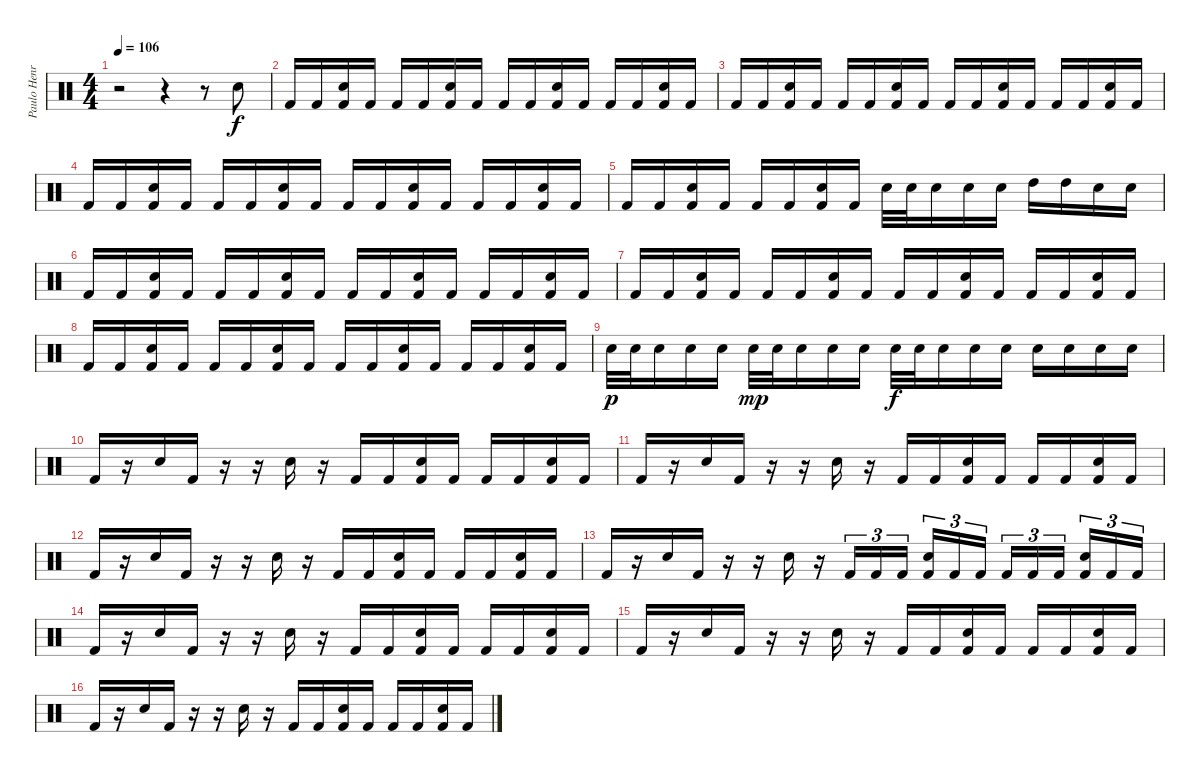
\track ("Paulo Henrique" "Paulo Henr") {instrument percussion}
\staff {score}
\articulation defaults
\ts (4 4)
\tempo 106
\clef neutral
\ks c
r.2{dy f} r.4 r.8 "Electric Snare (hit)".8 |
"Kick (hit) 2".16 "Kick (hit) 2".16 ("Electric Snare (hit)" "Kick (hit) 2").16 "Kick (hit) 2".16 "Kick (hit) 2".16 "Kick (hit) 2".16 ("Electric Snare (hit)" "Kick (hit) 2").16 "Kick (hit) 2".16 "Kick (hit) 2".16 "Kick (hit) 2".16 ("Electric Snare (hit)" "Kick (hit) 2").16 "Kick (hit) 2".16 "Kick (hit) 2".16 "Kick (hit) 2".16 ("Electric Snare (hit)" "Kick (hit) 2").16 "Kick (hit) 2".16 |
"Kick (hit) 2".16 "Kick (hit) 2".16 ("Electric Snare (hit)" "Kick (hit) 2").16 "Kick (hit) 2".16 "Kick (hit) 2".16 "Kick (hit) 2".16 ("Electric Snare (hit)" "Kick (hit) 2").16 "Kick (hit) 2".16 "Kick (hit) 2".16 "Kick (hit) 2".16 ("Electric Snare (hit)" "Kick (hit) 2").16 "Kick (hit) 2".16 "Kick (hit) 2".16 "Kick (hit) 2".16 ("Electric Snare (hit)" "Kick (hit) 2").16 "Kick (hit) 2".16 |
"Kick (hit) 2".16 "Kick (hit) 2".16 ("Electric Snare (hit)" "Kick (hit) 2").16 "Kick (hit) 2".16 "Kick (hit) 2".16 "Kick (hit) 2".16 ("Electric Snare (hit)" "Kick (hit) 2").16 "Kick (hit) 2".16 "Kick (hit) 2".16 "Kick (hit) 2".16 ("Electric Snare (hit)" "Kick (hit) 2").16 "Kick (hit) 2".16 "Kick (hit) 2".16 "Kick (hit) 2".16 ("Electric Snare (hit)" "Kick (hit) 2").16 "Kick (hit) 2".16 |
"Kick (hit) 2".16 "Kick (hit) 2".16 ("Electric Snare (hit)" "Kick (hit) 2").16 "Kick (hit) 2".16 "Kick (hit) 2".16 "Kick (hit) 2".16 ("Electric Snare (hit)" "Kick (hit) 2").16 "Kick (hit) 2".16 "Electric Snare (hit)".32 "Electric Snare (hit)".32 "Electric Snare (hit)".16 "Electric Snare (hit)".16 "Electric Snare (hit)".16 "High Tom (hit)".16 "High Tom (hit)".16 "Electric Snare (hit)".16 "Electric Snare (hit)".16 |
"Kick (hit) 2".16 "Kick (hit) 2".16 ("Electric Snare (hit)" "Kick (hit) 2").16 "Kick (hit) 2".16 "Kick (hit) 2".16 "Kick (hit) 2".16 ("Electric Snare (hit)" "Kick (hit) 2").16 "Kick (hit) 2".16 "Kick (hit) 2".16 "Kick (hit) 2".16 ("Electric Snare (hit)" "Kick (hit) 2").16 "Kick (hit) 2".16 "Kick (hit) 2".16 "Kick (hit) 2".16 ("Electric Snare (hit)" "Kick (hit) 2").16 "Kick (hit) 2".16 |
"Kick (hit) 2".16 "Kick (hit) 2".16 ("Electric Snare (hit)" "Kick (hit) 2").16 "Kick (hit) 2".16 "Kick (hit) 2".16 "Kick (hit) 2".16 ("Electric Snare (hit)" "Kick (hit) 2").16 "Kick (hit) 2".16 "Kick (hit) 2".16 "Kick (hit) 2".16 ("Electric Snare (hit)" "Kick (hit) 2").16 "Kick (hit) 2".16 "Kick (hit) 2".16 "Kick (hit) 2".16 ("Electric Snare (hit)" "Kick (hit) 2").16 "Kick (hit) 2".16 |
"Kick (hit) 2".16 "Kick (hit) 2".16 ("Electric Snare (hit)" "Kick (hit) 2").16 "Kick (hit) 2".16 "Kick (hit) 2".16 "Kick (hit) 2".16 ("Electric Snare (hit)" "Kick (hit) 2").16 "Kick (hit) 2".16 "Kick (hit) 2".16 "Kick (hit) 2".16 ("Electric Snare (hit)" "Kick (hit) 2").16 "Kick (hit) 2".16 "Kick (hit) 2".16 "Kick (hit) 2".16 ("Electric Snare (hit)" "Kick (hit) 2").16 "Kick (hit) 2".16 |
"Electric Snare (hit)".32{dy p} "Electric Snare (hit)".32 "Electric Snare (hit)".16 "Electric Snare (hit)".16 "Electric Snare (hit)".16 "Electric Snare (hit)".32{dy mp} "Electric Snare (hit)".32 "Electric Snare (hit)".16 "Electric Snare (hit)".16 "Electric Snare (hit)".16 "Electric Snare (hit)".32{dy f} "Electric Snare (hit)".32 "Electric Snare (hit)".16 "Electric Snare (hit)".16 "Electric Snare (hit)".16 "Electric Snare (hit)".16 "Electric Snare (hit)".16 "Electric Snare (hit)".16 "Electric Snare (hit)".16 |
"Kick (hit) 2".16 r.16 "Electric Snare (hit)".16 "Kick (hit) 2".16 r.16 r.16 "Electric Snare (hit)".16 r.16 "Kick (hit) 2".16 "Kick (hit) 2".16 ("Electric Snare (hit)" "Kick (hit) 2").16 "Kick (hit) 2".16 "Kick (hit) 2".16 "Kick (hit) 2".16 ("Electric Snare (hit)" "Kick (hit) 2").16 "Kick (hit) 2".16 |
"Kick (hit) 2".16 r.16 "Electric Snare (hit)".16 "Kick (hit) 2".16 r.16 r.16 "Electric Snare (hit)".16 r.16 "Kick (hit) 2".16 "Kick (hit) 2".16 ("Electric Snare (hit)" "Kick (hit) 2").16 "Kick (hit) 2".16 "Kick (hit) 2".16 "Kick (hit) 2".16 ("Electric Snare (hit)" "Kick (hit) 2").16 "Kick (hit) 2".16 |
"Kick (hit) 2".16 r.16 "Electric Snare (hit)".16 "Kick (hit) 2".16 r.16 r.16 "Electric Snare (hit)".16 r.16 "Kick (hit) 2".16 "Kick (hit) 2".16 ("Electric Snare (hit)" "Kick (hit) 2").16 "Kick (hit) 2".16 "Kick (hit) 2".16 "Kick (hit) 2".16 ("Electric Snare (hit)" "Kick (hit) 2").16 "Kick (hit) 2".16 |
"Kick (hit) 2".16 r.16 "Electric Snare (hit)".16 "Kick (hit) 2".16 r.16 r.16 "Electric Snare (hit)".16 r.16 "Kick (hit) 2".16{tu (3 2)} "Kick (hit) 2".16{tu (3 2)} "Kick (hit) 2".16{tu (3 2)} ("Electric Snare (hit)" "Kick (hit) 2").16{tu (3 2)} "Kick (hit) 2".16{tu (3 2)} "Kick (hit) 2".16{tu (3 2)} "Kick (hit) 2".16{tu (3 2)} "Kick (hit) 2".16{tu (3 2)} "Kick (hit) 2".16{tu (3 2)} ("Electric Snare (hit)" "Kick (hit) 2").16{tu (3 2)} "Kick (hit) 2".16{tu (3 2)} "Kick (hit) 2".16{tu (3 2)} |
"Kick (hit) 2".16 r.16 "Electric Snare (hit)".16 "Kick (hit) 2".16 r.16 r.16 "Electric Snare (hit)".16 r.16 "Kick (hit) 2".16 "Kick (hit) 2".16 ("Electric Snare (hit)" "Kick (hit) 2").16 "Kick (hit) 2".16 "Kick (hit) 2".16 "Kick (hit) 2".16 ("Electric Snare (hit)" "Kick (hit) 2").16 "Kick (hit) 2".16 |
"Kick (hit) 2".16 r.16 "Electric Snare (hit)".16 "Kick (hit) 2".16 r.16 r.16 "Electric Snare (hit)".16 r.16 "Kick (hit) 2".16 "Kick (hit) 2".16 ("Electric Snare (hit)" "Kick (hit) 2").16 "Kick (hit) 2".16 "Kick (hit) 2".16 "Kick (hit) 2".16 ("Electric Snare (hit)" "Kick (hit) 2").16 "Kick (hit) 2".16 |
"Kick (hit) 2".16 r.16 "Electric Snare (hit)".16 "Kick (hit) 2".16 r.16 r.16 "Electric Snare (hit)".16 r.16 "Kick (hit) 2".16 "Kick (hit) 2".16 ("Electric Snare (hit)" "Kick (hit) 2").16 "Kick (hit) 2".16 "Kick (hit) 2".16 "Kick (hit) 2".16 ("Electric Snare (hit)" "Kick (hit) 2").16 "Kick (hit) 2".16
